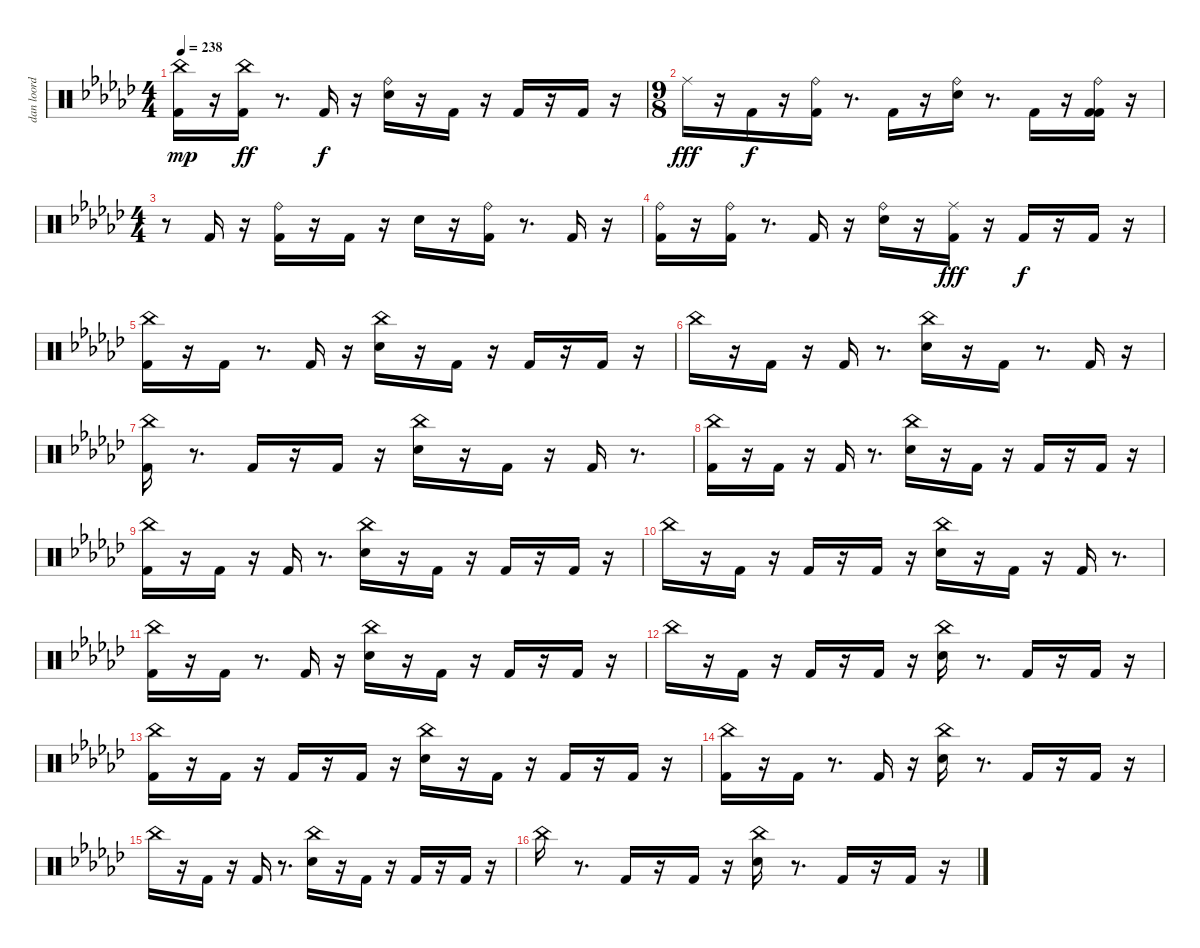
\track ("dan loord foord" "dan loord ") {instrument percussion}
\staff {score}
\articulation defaults
\ts (4 4)
\tempo 238
\clef neutral
\ks gb
("Kick (hit) 2" "China (hit)").16{dy mp} r.16 ("Kick (hit) 2" "China (hit)").16{dy ff} r.8{d} "Kick (hit) 2".16{dy f} r.16 ("Snare (hit) 2" "Ride (bell)").16 r.16 "Kick (hit) 2".16 r.16 "Kick (hit) 2".16 r.16 "Kick (hit) 2".16 r.16 |
\ts (9 8)
"Ride (middle)".16{dy fff} r.16 "Kick (hit) 2".16{dy f} r.16 ("Kick (hit) 2" "Ride (bell)").16 r.8{d} "Kick (hit) 2".16 r.16 ("Snare (hit) 2" "Ride (bell)").16 r.8{d} "Kick (hit) 2".16 r.16 ("Kick (hit) 2" "Kick (hit) 2" "Ride (bell)").16 r.16 |
\ts (4 4)
r.8 "Kick (hit) 2".16 r.16 ("Kick (hit) 2" "Ride (bell)").16 r.16 "Kick (hit) 2".16 r.16 "Snare (hit) 2".16 r.16 ("Kick (hit) 2" "Ride (bell)").16 r.8{d} "Kick (hit) 2".16 r.16 |
("Kick (hit) 2" "Ride (bell)").16 r.16 ("Kick (hit) 2" "Ride (bell)").16 r.8{d} "Kick (hit) 2".16 r.16 ("Snare (hit) 2" "Ride (bell)").16 r.16 ("Kick (hit) 2" "Ride (middle)").16{dy fff} r.16 "Kick (hit) 2".16{dy f} r.16 "Kick (hit) 2".16 r.16 |
("Kick (hit) 2" "China (hit)").16 r.16 "Kick (hit) 2".16 r.8{d} "Kick (hit) 2".16 r.16 ("Snare (hit) 2" "China (hit)").16 r.16 "Kick (hit) 2".16 r.16 "Kick (hit) 2".16 r.16 "Kick (hit) 2".16 r.16 |
"China (hit)".16 r.16 "Kick (hit) 2".16 r.16 "Kick (hit) 2".16 r.8{d} ("Snare (hit) 2" "China (hit)").16 r.16 "Kick (hit) 2".16 r.8{d} "Kick (hit) 2".16 r.16 |
("Kick (hit) 2" "China (hit)").16 r.8{d} "Kick (hit) 2".16 r.16 "Kick (hit) 2".16 r.16 ("Snare (hit) 2" "China (hit)").16 r.16 "Kick (hit) 2".16 r.16 "Kick (hit) 2".16 r.8{d} |
("Kick (hit) 2" "China (hit)").16 r.16 "Kick (hit) 2".16 r.16 "Kick (hit) 2".16 r.8{d} ("Snare (hit) 2" "China (hit)").16 r.16 "Kick (hit) 2".16 r.16 "Kick (hit) 2".16 r.16 "Kick (hit) 2".16 r.16 |
("Kick (hit) 2" "China (hit)").16 r.16 "Kick (hit) 2".16 r.16 "Kick (hit) 2".16 r.8{d} ("Snare (hit) 2" "China (hit)").16 r.16 "Kick (hit) 2".16 r.16 "Kick (hit) 2".16 r.16 "Kick (hit) 2".16 r.16 |
"China (hit)".16 r.16 "Kick (hit) 2".16 r.16 "Kick (hit) 2".16 r.16 "Kick (hit) 2".16 r.16 ("Snare (hit) 2" "China (hit)").16 r.16 "Kick (hit) 2".16 r.16 "Kick (hit) 2".16 r.8{d} |
("Kick (hit) 2" "China (hit)").16 r.16 "Kick (hit) 2".16 r.8{d} "Kick (hit) 2".16 r.16 ("Snare (hit) 2" "China (hit)").16 r.16 "Kick (hit) 2".16 r.16 "Kick (hit) 2".16 r.16 "Kick (hit) 2".16 r.16 |
"China (hit)".16 r.16 "Kick (hit) 2".16 r.16 "Kick (hit) 2".16 r.16 "Kick (hit) 2".16 r.16 ("Snare (hit) 2" "China (hit)").16 r.8{d} "Kick (hit) 2".16 r.16 "Kick (hit) 2".16 r.16 |
("Kick (hit) 2" "China (hit)").16 r.16 "Kick (hit) 2".16 r.16 "Kick (hit) 2".16 r.16 "Kick (hit) 2".16 r.16 ("Snare (hit) 2" "China (hit)").16 r.16 "Kick (hit) 2".16 r.16 "Kick (hit) 2".16 r.16 "Kick (hit) 2".16 r.16 |
("Kick (hit) 2" "China (hit)").16 r.16 "Kick (hit) 2".16 r.8{d} "Kick (hit) 2".16 r.16 ("Snare (hit) 2" "China (hit)").16 r.8{d} "Kick (hit) 2".16 r.16 "Kick (hit) 2".16 r.16 |
"China (hit)".16 r.16 "Kick (hit) 2".16 r.16 "Kick (hit) 2".16 r.8{d} ("Snare (hit) 2" "China (hit)").16 r.16 "Kick (hit) 2".16 r.16 "Kick (hit) 2".16 r.16 "Kick (hit) 2".16 r.16 |
"China (hit)".16 r.8{d} "Kick (hit) 2".16 r.16 "Kick (hit) 2".16 r.16 ("Snare (hit) 2" "China (hit)").16 r.8{d} "Kick (hit) 2".16 r.16 "Kick (hit) 2".16 r.16
